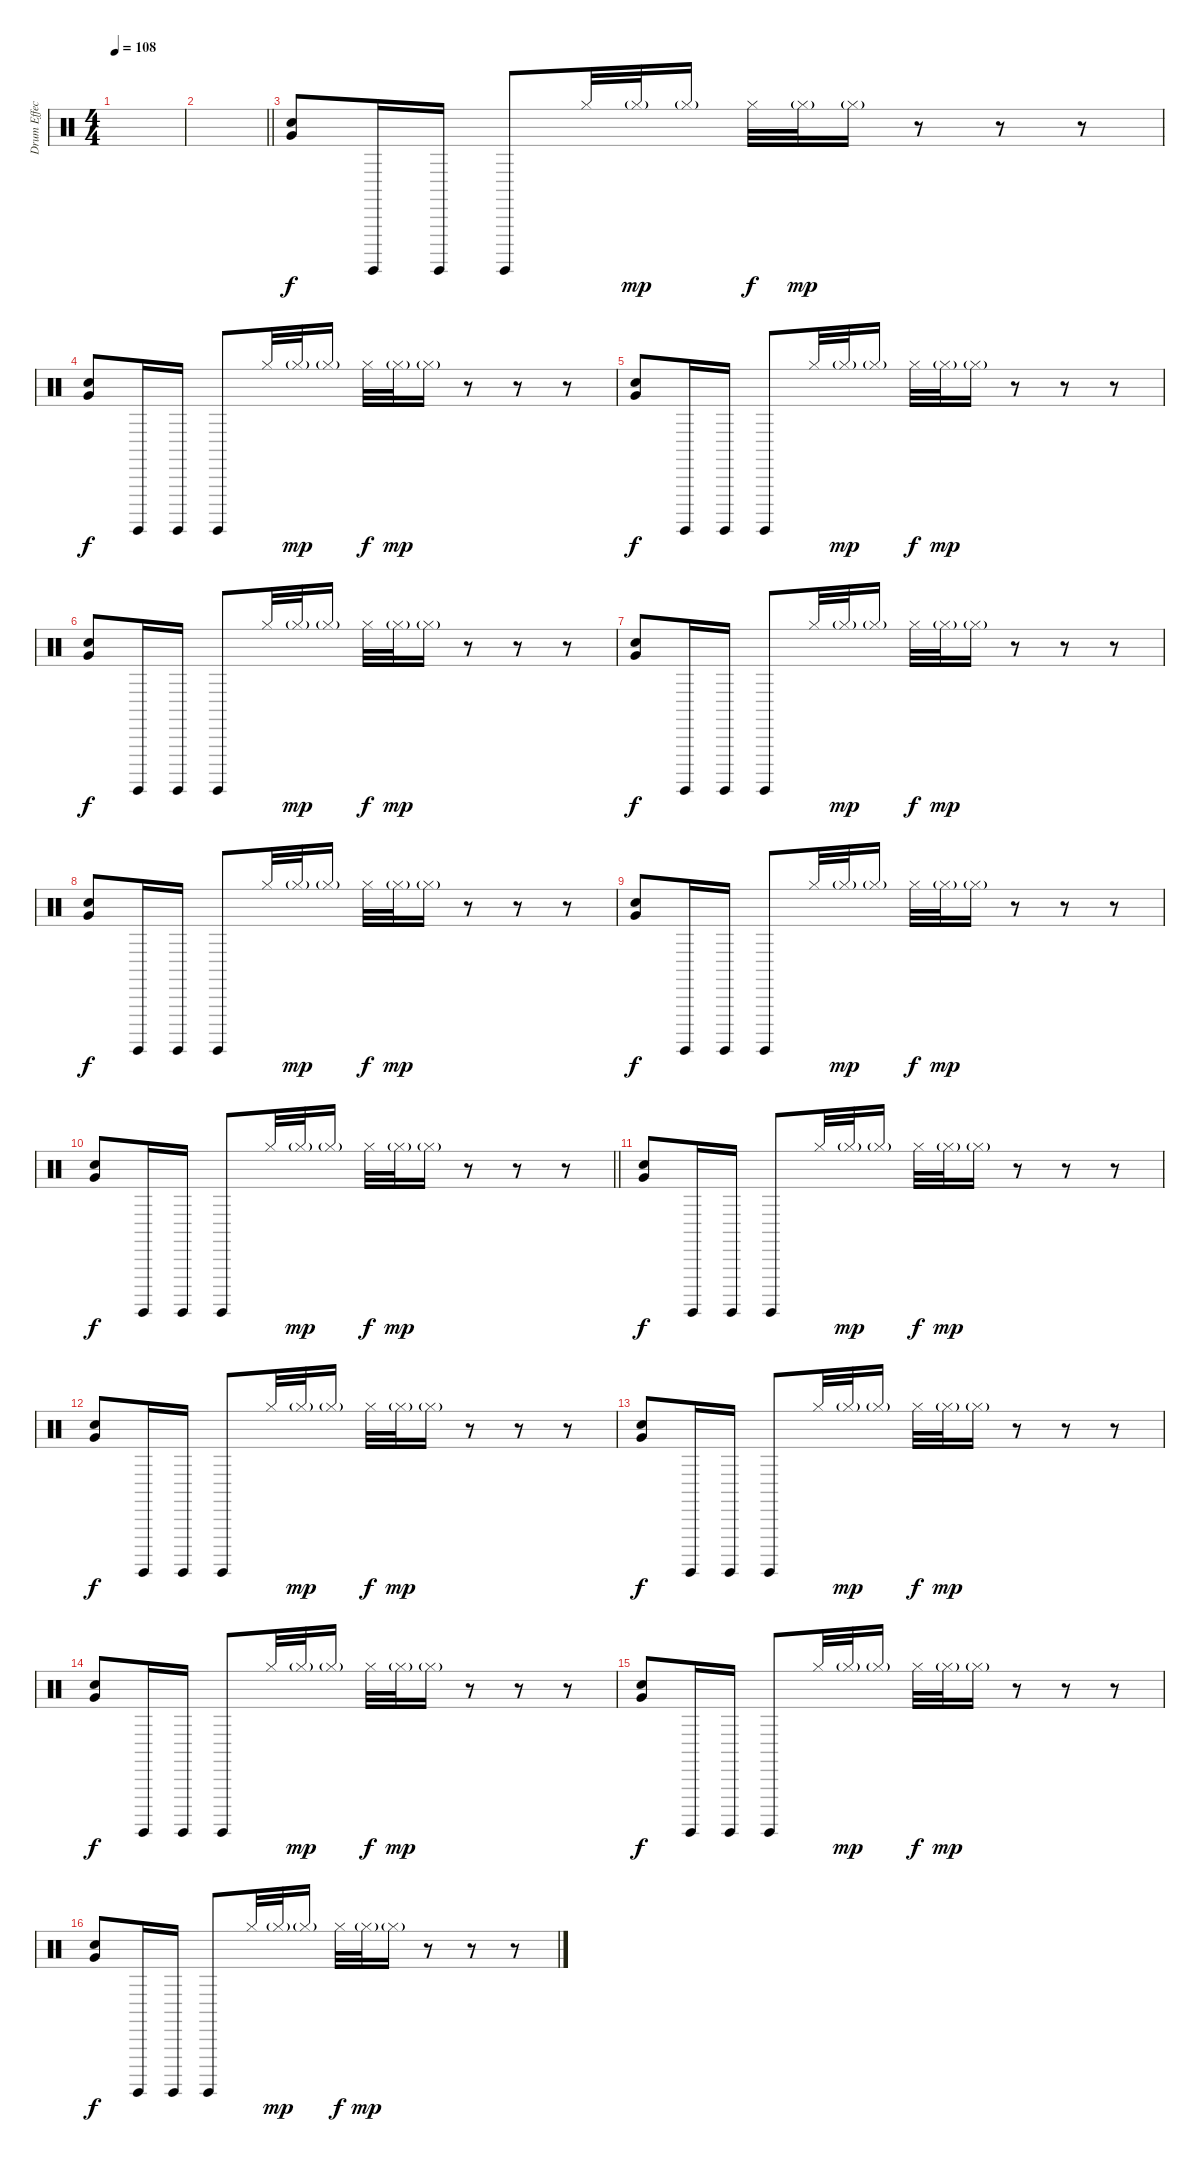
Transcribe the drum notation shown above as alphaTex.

\track ("Drum Effects" "Drum Effec") {instrument percussion}
\staff {score}
\articulation defaults
\ts (4 4)
\section ("" "")
\tempo 108
\clef neutral
\ks c
|
\barLineRight lightlight
|
\section ("" "")
("Hand Clap (hit)" "Very Low Tom (hit)").8{dy f} "Surdo (hit)".16 "Surdo (hit)".16 "Surdo (hit)".8 "Hi-Hat (closed)".32 "Hi-Hat (closed)"{g}.32{dy mp} "Hi-Hat (closed)"{g}.16 "Hi-Hat (closed)".32{dy f} "Hi-Hat (closed)"{g}.32{dy mp} "Hi-Hat (closed)"{g}.16 r.8 r.8 r.8 |
("Hand Clap (hit)" "Very Low Tom (hit)").8{dy f} "Surdo (hit)".16 "Surdo (hit)".16 "Surdo (hit)".8 "Hi-Hat (closed)".32 "Hi-Hat (closed)"{g}.32{dy mp} "Hi-Hat (closed)"{g}.16 "Hi-Hat (closed)".32{dy f} "Hi-Hat (closed)"{g}.32{dy mp} "Hi-Hat (closed)"{g}.16 r.8 r.8 r.8 |
("Hand Clap (hit)" "Very Low Tom (hit)").8{dy f} "Surdo (hit)".16 "Surdo (hit)".16 "Surdo (hit)".8 "Hi-Hat (closed)".32 "Hi-Hat (closed)"{g}.32{dy mp} "Hi-Hat (closed)"{g}.16 "Hi-Hat (closed)".32{dy f} "Hi-Hat (closed)"{g}.32{dy mp} "Hi-Hat (closed)"{g}.16 r.8 r.8 r.8 |
("Hand Clap (hit)" "Very Low Tom (hit)").8{dy f} "Surdo (hit)".16 "Surdo (hit)".16 "Surdo (hit)".8 "Hi-Hat (closed)".32 "Hi-Hat (closed)"{g}.32{dy mp} "Hi-Hat (closed)"{g}.16 "Hi-Hat (closed)".32{dy f} "Hi-Hat (closed)"{g}.32{dy mp} "Hi-Hat (closed)"{g}.16 r.8 r.8 r.8 |
("Hand Clap (hit)" "Very Low Tom (hit)").8{dy f} "Surdo (hit)".16 "Surdo (hit)".16 "Surdo (hit)".8 "Hi-Hat (closed)".32 "Hi-Hat (closed)"{g}.32{dy mp} "Hi-Hat (closed)"{g}.16 "Hi-Hat (closed)".32{dy f} "Hi-Hat (closed)"{g}.32{dy mp} "Hi-Hat (closed)"{g}.16 r.8 r.8 r.8 |
("Hand Clap (hit)" "Very Low Tom (hit)").8{dy f} "Surdo (hit)".16 "Surdo (hit)".16 "Surdo (hit)".8 "Hi-Hat (closed)".32 "Hi-Hat (closed)"{g}.32{dy mp} "Hi-Hat (closed)"{g}.16 "Hi-Hat (closed)".32{dy f} "Hi-Hat (closed)"{g}.32{dy mp} "Hi-Hat (closed)"{g}.16 r.8 r.8 r.8 |
("Hand Clap (hit)" "Very Low Tom (hit)").8{dy f} "Surdo (hit)".16 "Surdo (hit)".16 "Surdo (hit)".8 "Hi-Hat (closed)".32 "Hi-Hat (closed)"{g}.32{dy mp} "Hi-Hat (closed)"{g}.16 "Hi-Hat (closed)".32{dy f} "Hi-Hat (closed)"{g}.32{dy mp} "Hi-Hat (closed)"{g}.16 r.8 r.8 r.8 |
\barLineRight lightlight
("Hand Clap (hit)" "Very Low Tom (hit)").8{dy f} "Surdo (hit)".16 "Surdo (hit)".16 "Surdo (hit)".8 "Hi-Hat (closed)".32 "Hi-Hat (closed)"{g}.32{dy mp} "Hi-Hat (closed)"{g}.16 "Hi-Hat (closed)".32{dy f} "Hi-Hat (closed)"{g}.32{dy mp} "Hi-Hat (closed)"{g}.16 r.8 r.8 r.8 |
\section ("" "")
("Hand Clap (hit)" "Very Low Tom (hit)").8{dy f} "Surdo (hit)".16 "Surdo (hit)".16 "Surdo (hit)".8 "Hi-Hat (closed)".32 "Hi-Hat (closed)"{g}.32{dy mp} "Hi-Hat (closed)"{g}.16 "Hi-Hat (closed)".32{dy f} "Hi-Hat (closed)"{g}.32{dy mp} "Hi-Hat (closed)"{g}.16 r.8 r.8 r.8 |
("Hand Clap (hit)" "Very Low Tom (hit)").8{dy f} "Surdo (hit)".16 "Surdo (hit)".16 "Surdo (hit)".8 "Hi-Hat (closed)".32 "Hi-Hat (closed)"{g}.32{dy mp} "Hi-Hat (closed)"{g}.16 "Hi-Hat (closed)".32{dy f} "Hi-Hat (closed)"{g}.32{dy mp} "Hi-Hat (closed)"{g}.16 r.8 r.8 r.8 |
("Hand Clap (hit)" "Very Low Tom (hit)").8{dy f} "Surdo (hit)".16 "Surdo (hit)".16 "Surdo (hit)".8 "Hi-Hat (closed)".32 "Hi-Hat (closed)"{g}.32{dy mp} "Hi-Hat (closed)"{g}.16 "Hi-Hat (closed)".32{dy f} "Hi-Hat (closed)"{g}.32{dy mp} "Hi-Hat (closed)"{g}.16 r.8 r.8 r.8 |
("Hand Clap (hit)" "Very Low Tom (hit)").8{dy f} "Surdo (hit)".16 "Surdo (hit)".16 "Surdo (hit)".8 "Hi-Hat (closed)".32 "Hi-Hat (closed)"{g}.32{dy mp} "Hi-Hat (closed)"{g}.16 "Hi-Hat (closed)".32{dy f} "Hi-Hat (closed)"{g}.32{dy mp} "Hi-Hat (closed)"{g}.16 r.8 r.8 r.8 |
("Hand Clap (hit)" "Very Low Tom (hit)").8{dy f} "Surdo (hit)".16 "Surdo (hit)".16 "Surdo (hit)".8 "Hi-Hat (closed)".32 "Hi-Hat (closed)"{g}.32{dy mp} "Hi-Hat (closed)"{g}.16 "Hi-Hat (closed)".32{dy f} "Hi-Hat (closed)"{g}.32{dy mp} "Hi-Hat (closed)"{g}.16 r.8 r.8 r.8 |
("Hand Clap (hit)" "Very Low Tom (hit)").8{dy f} "Surdo (hit)".16 "Surdo (hit)".16 "Surdo (hit)".8 "Hi-Hat (closed)".32 "Hi-Hat (closed)"{g}.32{dy mp} "Hi-Hat (closed)"{g}.16 "Hi-Hat (closed)".32{dy f} "Hi-Hat (closed)"{g}.32{dy mp} "Hi-Hat (closed)"{g}.16 r.8 r.8 r.8
